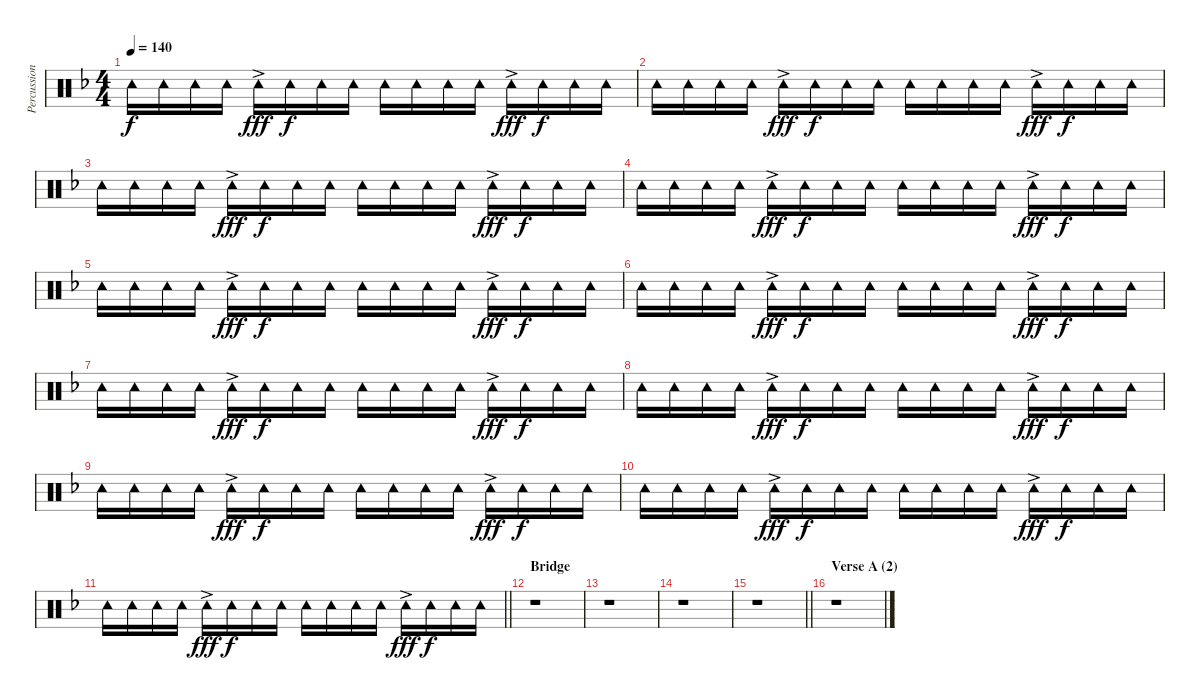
\track ("Percussion" "Percussion") {instrument percussion}
\staff {score}
\articulation defaults
\ts (4 4)
\tempo 140
\clef neutral
\ks f "Tambourine (hit)".16{dy f} "Tambourine (hit)".16 "Tambourine (hit)".16 "Tambourine (hit)".16 "Tambourine (hit)"{ac}.16{dy fff} "Tambourine (hit)".16{dy f} "Tambourine (hit)".16 "Tambourine (hit)".16 "Tambourine (hit)".16 "Tambourine (hit)".16 "Tambourine (hit)".16 "Tambourine (hit)".16 "Tambourine (hit)"{ac}.16{dy fff} "Tambourine (hit)".16{dy f} "Tambourine (hit)".16 "Tambourine (hit)".16
|
"Tambourine (hit)".16 "Tambourine (hit)".16 "Tambourine (hit)".16 "Tambourine (hit)".16 "Tambourine (hit)"{ac}.16{dy fff} "Tambourine (hit)".16{dy f} "Tambourine (hit)".16 "Tambourine (hit)".16 "Tambourine (hit)".16 "Tambourine (hit)".16 "Tambourine (hit)".16 "Tambourine (hit)".16 "Tambourine (hit)"{ac}.16{dy fff} "Tambourine (hit)".16{dy f} "Tambourine (hit)".16 "Tambourine (hit)".16 |
"Tambourine (hit)".16 "Tambourine (hit)".16 "Tambourine (hit)".16 "Tambourine (hit)".16 "Tambourine (hit)"{ac}.16{dy fff} "Tambourine (hit)".16{dy f} "Tambourine (hit)".16 "Tambourine (hit)".16 "Tambourine (hit)".16 "Tambourine (hit)".16 "Tambourine (hit)".16 "Tambourine (hit)".16 "Tambourine (hit)"{ac}.16{dy fff} "Tambourine (hit)".16{dy f} "Tambourine (hit)".16 "Tambourine (hit)".16 |
"Tambourine (hit)".16 "Tambourine (hit)".16 "Tambourine (hit)".16 "Tambourine (hit)".16 "Tambourine (hit)"{ac}.16{dy fff} "Tambourine (hit)".16{dy f} "Tambourine (hit)".16 "Tambourine (hit)".16 "Tambourine (hit)".16 "Tambourine (hit)".16 "Tambourine (hit)".16 "Tambourine (hit)".16 "Tambourine (hit)"{ac}.16{dy fff} "Tambourine (hit)".16{dy f} "Tambourine (hit)".16 "Tambourine (hit)".16 |
"Tambourine (hit)".16 "Tambourine (hit)".16 "Tambourine (hit)".16 "Tambourine (hit)".16 "Tambourine (hit)"{ac}.16{dy fff} "Tambourine (hit)".16{dy f} "Tambourine (hit)".16 "Tambourine (hit)".16 "Tambourine (hit)".16 "Tambourine (hit)".16 "Tambourine (hit)".16 "Tambourine (hit)".16 "Tambourine (hit)"{ac}.16{dy fff} "Tambourine (hit)".16{dy f} "Tambourine (hit)".16 "Tambourine (hit)".16 |
"Tambourine (hit)".16 "Tambourine (hit)".16 "Tambourine (hit)".16 "Tambourine (hit)".16 "Tambourine (hit)"{ac}.16{dy fff} "Tambourine (hit)".16{dy f} "Tambourine (hit)".16 "Tambourine (hit)".16 "Tambourine (hit)".16 "Tambourine (hit)".16 "Tambourine (hit)".16 "Tambourine (hit)".16 "Tambourine (hit)"{ac}.16{dy fff} "Tambourine (hit)".16{dy f} "Tambourine (hit)".16 "Tambourine (hit)".16 |
"Tambourine (hit)".16 "Tambourine (hit)".16 "Tambourine (hit)".16 "Tambourine (hit)".16 "Tambourine (hit)"{ac}.16{dy fff} "Tambourine (hit)".16{dy f} "Tambourine (hit)".16 "Tambourine (hit)".16 "Tambourine (hit)".16 "Tambourine (hit)".16 "Tambourine (hit)".16 "Tambourine (hit)".16 "Tambourine (hit)"{ac}.16{dy fff} "Tambourine (hit)".16{dy f} "Tambourine (hit)".16 "Tambourine (hit)".16 |
"Tambourine (hit)".16 "Tambourine (hit)".16 "Tambourine (hit)".16 "Tambourine (hit)".16 "Tambourine (hit)"{ac}.16{dy fff} "Tambourine (hit)".16{dy f} "Tambourine (hit)".16 "Tambourine (hit)".16 "Tambourine (hit)".16 "Tambourine (hit)".16 "Tambourine (hit)".16 "Tambourine (hit)".16 "Tambourine (hit)"{ac}.16{dy fff} "Tambourine (hit)".16{dy f} "Tambourine (hit)".16 "Tambourine (hit)".16 |
"Tambourine (hit)".16 "Tambourine (hit)".16 "Tambourine (hit)".16 "Tambourine (hit)".16 "Tambourine (hit)"{ac}.16{dy fff} "Tambourine (hit)".16{dy f} "Tambourine (hit)".16 "Tambourine (hit)".16 "Tambourine (hit)".16 "Tambourine (hit)".16 "Tambourine (hit)".16 "Tambourine (hit)".16 "Tambourine (hit)"{ac}.16{dy fff} "Tambourine (hit)".16{dy f} "Tambourine (hit)".16 "Tambourine (hit)".16 |
"Tambourine (hit)".16 "Tambourine (hit)".16 "Tambourine (hit)".16 "Tambourine (hit)".16 "Tambourine (hit)"{ac}.16{dy fff} "Tambourine (hit)".16{dy f} "Tambourine (hit)".16 "Tambourine (hit)".16 "Tambourine (hit)".16 "Tambourine (hit)".16 "Tambourine (hit)".16 "Tambourine (hit)".16 "Tambourine (hit)"{ac}.16{dy fff} "Tambourine (hit)".16{dy f} "Tambourine (hit)".16 "Tambourine (hit)".16 |
\barLineRight lightlight "Tambourine (hit)".16 "Tambourine (hit)".16 "Tambourine (hit)".16 "Tambourine (hit)".16 "Tambourine (hit)"{ac}.16{dy fff} "Tambourine (hit)".16{dy f} "Tambourine (hit)".16 "Tambourine (hit)".16 "Tambourine (hit)".16 "Tambourine (hit)".16 "Tambourine (hit)".16 "Tambourine (hit)".16 "Tambourine (hit)"{ac}.16{dy fff} "Tambourine (hit)".16{dy f} "Tambourine (hit)".16 "Tambourine (hit)".16
|
\section ("" "Bridge")
r.1 |
r.1 |
r.1 |
\barLineRight lightlight
r.1 |
\section ("" "Verse A (2)")
r.1
